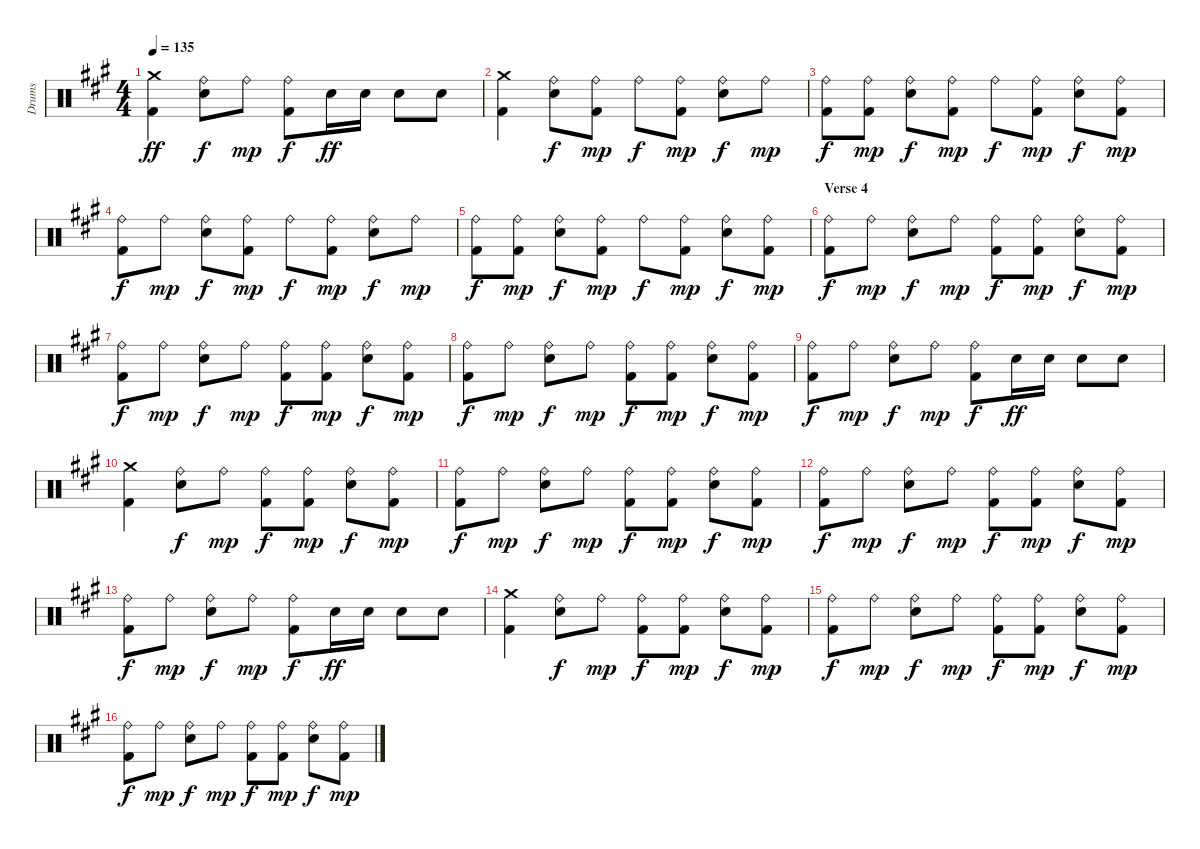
\track ("Drums" "Drums") {instrument percussion}
\staff {score}
\articulation defaults
\ts (4 4)
\tempo 135
\clef neutral
\ks a
("Crash medium (hit)" "Kick (hit) 2").4{dy ff} ("Ride (bell)" "Electric Snare (hit)").8{dy f} "Ride (bell)".8{dy mp} ("Ride (bell)" "Kick (hit) 2").8{dy f} "Electric Snare (hit)".16{dy ff} "Electric Snare (hit)".16 "Electric Snare (hit)".8 "Electric Snare (hit)".8 |
("Crash medium (hit)" "Kick (hit) 2").4 ("Ride (bell)" "Electric Snare (hit)").8{dy f} ("Ride (bell)" "Kick (hit) 2").8{dy mp} "Ride (bell)".8{dy f} ("Ride (bell)" "Kick (hit) 2").8{dy mp} ("Ride (bell)" "Electric Snare (hit)").8{dy f} "Ride (bell)".8{dy mp} |
("Ride (bell)" "Kick (hit) 2").8{dy f} ("Ride (bell)" "Kick (hit) 2").8{dy mp} ("Ride (bell)" "Electric Snare (hit)").8{dy f} ("Ride (bell)" "Kick (hit) 2").8{dy mp} "Ride (bell)".8{dy f} ("Ride (bell)" "Kick (hit) 2").8{dy mp} ("Ride (bell)" "Electric Snare (hit)").8{dy f} ("Ride (bell)" "Kick (hit) 2").8{dy mp} |
("Ride (bell)" "Kick (hit) 2").8{dy f} "Ride (bell)".8{dy mp} ("Ride (bell)" "Electric Snare (hit)").8{dy f} ("Ride (bell)" "Kick (hit) 2").8{dy mp} "Ride (bell)".8{dy f} ("Ride (bell)" "Kick (hit) 2").8{dy mp} ("Ride (bell)" "Electric Snare (hit)").8{dy f} "Ride (bell)".8{dy mp} |
("Ride (bell)" "Kick (hit) 2").8{dy f} ("Ride (bell)" "Kick (hit) 2").8{dy mp} ("Ride (bell)" "Electric Snare (hit)").8{dy f} ("Ride (bell)" "Kick (hit) 2").8{dy mp} "Ride (bell)".8{dy f} ("Ride (bell)" "Kick (hit) 2").8{dy mp} ("Ride (bell)" "Electric Snare (hit)").8{dy f} ("Ride (bell)" "Kick (hit) 2").8{dy mp} |
\section ("" "Verse 4")
("Ride (bell)" "Kick (hit) 2").8{dy f} "Ride (bell)".8{dy mp} ("Ride (bell)" "Electric Snare (hit)").8{dy f} "Ride (bell)".8{dy mp} ("Ride (bell)" "Kick (hit) 2").8{dy f} ("Ride (bell)" "Kick (hit) 2").8{dy mp} ("Ride (bell)" "Electric Snare (hit)").8{dy f} ("Ride (bell)" "Kick (hit) 2").8{dy mp} |
("Ride (bell)" "Kick (hit) 2").8{dy f} "Ride (bell)".8{dy mp} ("Ride (bell)" "Electric Snare (hit)").8{dy f} "Ride (bell)".8{dy mp} ("Ride (bell)" "Kick (hit) 2").8{dy f} ("Ride (bell)" "Kick (hit) 2").8{dy mp} ("Ride (bell)" "Electric Snare (hit)").8{dy f} ("Ride (bell)" "Kick (hit) 2").8{dy mp} |
("Ride (bell)" "Kick (hit) 2").8{dy f} "Ride (bell)".8{dy mp} ("Ride (bell)" "Electric Snare (hit)").8{dy f} "Ride (bell)".8{dy mp} ("Ride (bell)" "Kick (hit) 2").8{dy f} ("Ride (bell)" "Kick (hit) 2").8{dy mp} ("Ride (bell)" "Electric Snare (hit)").8{dy f} ("Ride (bell)" "Kick (hit) 2").8{dy mp} |
("Ride (bell)" "Kick (hit) 2").8{dy f} "Ride (bell)".8{dy mp} ("Ride (bell)" "Electric Snare (hit)").8{dy f} "Ride (bell)".8{dy mp} ("Ride (bell)" "Kick (hit) 2").8{dy f} "Electric Snare (hit)".16{dy ff} "Electric Snare (hit)".16 "Electric Snare (hit)".8 "Electric Snare (hit)".8 |
("Crash medium (hit)" "Kick (hit) 2").4 ("Ride (bell)" "Electric Snare (hit)").8{dy f} "Ride (bell)".8{dy mp} ("Ride (bell)" "Kick (hit) 2").8{dy f} ("Ride (bell)" "Kick (hit) 2").8{dy mp} ("Ride (bell)" "Electric Snare (hit)").8{dy f} ("Ride (bell)" "Kick (hit) 2").8{dy mp} |
("Ride (bell)" "Kick (hit) 2").8{dy f} "Ride (bell)".8{dy mp} ("Ride (bell)" "Electric Snare (hit)").8{dy f} "Ride (bell)".8{dy mp} ("Ride (bell)" "Kick (hit) 2").8{dy f} ("Ride (bell)" "Kick (hit) 2").8{dy mp} ("Ride (bell)" "Electric Snare (hit)").8{dy f} ("Ride (bell)" "Kick (hit) 2").8{dy mp} |
("Ride (bell)" "Kick (hit) 2").8{dy f} "Ride (bell)".8{dy mp} ("Ride (bell)" "Electric Snare (hit)").8{dy f} "Ride (bell)".8{dy mp} ("Ride (bell)" "Kick (hit) 2").8{dy f} ("Ride (bell)" "Kick (hit) 2").8{dy mp} ("Ride (bell)" "Electric Snare (hit)").8{dy f} ("Ride (bell)" "Kick (hit) 2").8{dy mp} |
("Ride (bell)" "Kick (hit) 2").8{dy f} "Ride (bell)".8{dy mp} ("Ride (bell)" "Electric Snare (hit)").8{dy f} "Ride (bell)".8{dy mp} ("Ride (bell)" "Kick (hit) 2").8{dy f} "Electric Snare (hit)".16{dy ff} "Electric Snare (hit)".16 "Electric Snare (hit)".8 "Electric Snare (hit)".8 |
("Crash medium (hit)" "Kick (hit) 2").4 ("Ride (bell)" "Electric Snare (hit)").8{dy f} "Ride (bell)".8{dy mp} ("Ride (bell)" "Kick (hit) 2").8{dy f} ("Ride (bell)" "Kick (hit) 2").8{dy mp} ("Ride (bell)" "Electric Snare (hit)").8{dy f} ("Ride (bell)" "Kick (hit) 2").8{dy mp} |
("Ride (bell)" "Kick (hit) 2").8{dy f} "Ride (bell)".8{dy mp} ("Ride (bell)" "Electric Snare (hit)").8{dy f} "Ride (bell)".8{dy mp} ("Ride (bell)" "Kick (hit) 2").8{dy f} ("Ride (bell)" "Kick (hit) 2").8{dy mp} ("Ride (bell)" "Electric Snare (hit)").8{dy f} ("Ride (bell)" "Kick (hit) 2").8{dy mp} |
("Ride (bell)" "Kick (hit) 2").8{dy f} "Ride (bell)".8{dy mp} ("Ride (bell)" "Electric Snare (hit)").8{dy f} "Ride (bell)".8{dy mp} ("Ride (bell)" "Kick (hit) 2").8{dy f} ("Ride (bell)" "Kick (hit) 2").8{dy mp} ("Ride (bell)" "Electric Snare (hit)").8{dy f} ("Ride (bell)" "Kick (hit) 2").8{dy mp}
